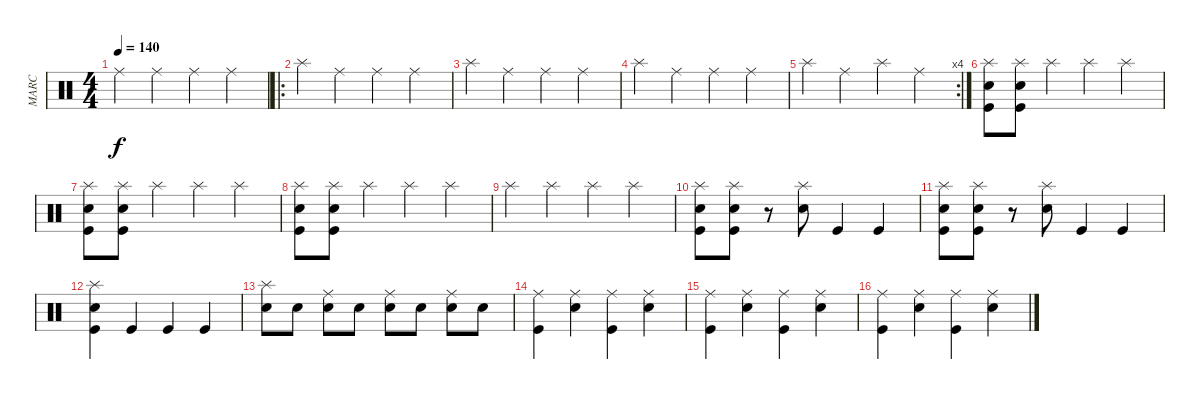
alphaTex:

\track ("MARC" "MARC") {instrument percussion}
\staff {score}
\articulation defaults
\ts (4 4)
\tempo 140
\clef neutral
\ks c "Ride (middle)".4{dy f} "Ride (middle)".4 "Ride (middle)".4 "Ride (middle)".4
|
\ro "Splash (hit)".4 "Ride (middle)".4 "Ride (middle)".4 "Ride (middle)".4
|
"Splash (hit)".4 "Ride (middle)".4 "Ride (middle)".4 "Ride (middle)".4 |
"Splash (hit)".4 "Ride (middle)".4 "Ride (middle)".4 "Ride (middle)".4 |
\rc 4 "Splash (hit)".4 "Ride (middle)".4 "Splash (hit)".4 "Ride (middle)".4
|
("Snare (hit) 2" "Kick (hit)" "Splash (hit)").8 ("Snare (hit) 2" "Kick (hit)" "Splash (hit)").8 "Splash (hit)".4 "Splash (hit)".4 "Splash (hit)".4 |
("Snare (hit) 2" "Kick (hit)" "Splash (hit)").8 ("Snare (hit) 2" "Kick (hit)" "Splash (hit)").8 "Splash (hit)".4 "Splash (hit)".4 "Splash (hit)".4 |
("Snare (hit) 2" "Kick (hit)" "Splash (hit)").8 ("Snare (hit) 2" "Kick (hit)" "Splash (hit)").8 "Splash (hit)".4 "Splash (hit)".4 "Splash (hit)".4 |
"Splash (hit)".4 "Splash (hit)".4 "Splash (hit)".4 "Splash (hit)".4 |
("Kick (hit)" "Snare (hit) 2" "Splash (hit)").8 ("Kick (hit)" "Snare (hit) 2" "Splash (hit)").8 r.8 ("Splash (hit)" "Snare (hit) 2").8 "Kick (hit)".4 "Kick (hit)".4 |
("Kick (hit)" "Snare (hit) 2" "Splash (hit)").8 ("Kick (hit)" "Snare (hit) 2" "Splash (hit)").8 r.8 ("Splash (hit)" "Snare (hit) 2").8 "Kick (hit)".4 "Kick (hit)".4 |
("Kick (hit)" "Snare (hit) 2" "Splash (hit)").4 "Kick (hit)".4 "Kick (hit)".4 "Kick (hit)".4 |
("Snare (hit) 2" "Splash (hit)").8 "Snare (hit) 2".8 ("Snare (hit) 2" "Ride (middle)").8 "Snare (hit) 2".8 ("Snare (hit) 2" "Ride (middle)").8 "Snare (hit) 2".8 ("Snare (hit) 2" "Ride (middle)").8 "Snare (hit) 2".8 |
("Kick (hit)" "Ride (middle)").4 ("Snare (hit) 2" "Ride (middle)").4 ("Kick (hit)" "Ride (middle)").4 ("Snare (hit) 2" "Ride (middle)").4 |
("Kick (hit)" "Ride (middle)").4 ("Snare (hit) 2" "Ride (middle)").4 ("Kick (hit)" "Ride (middle)").4 ("Snare (hit) 2" "Ride (middle)").4 |
("Kick (hit)" "Ride (middle)").4 ("Snare (hit) 2" "Ride (middle)").4 ("Kick (hit)" "Ride (middle)").4 ("Snare (hit) 2" "Ride (middle)").4
